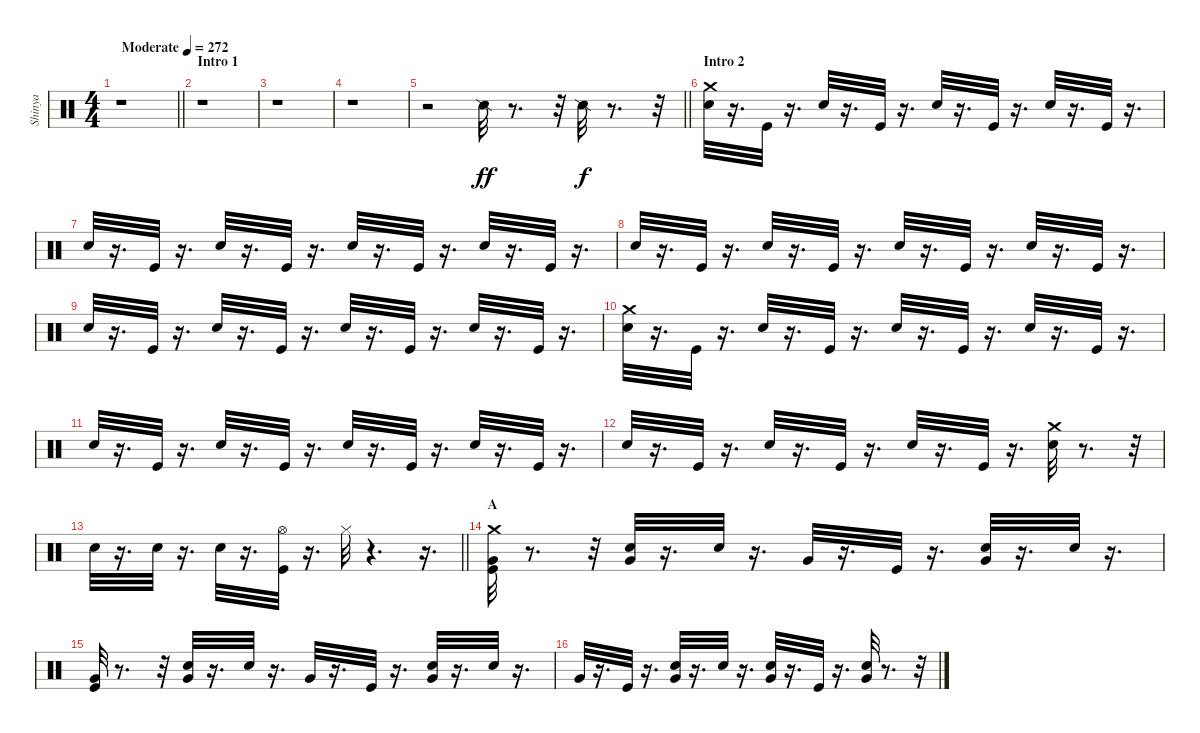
\track ("Shinya" "Shinya") {instrument percussion}
\staff {score}
\articulation defaults
\ts (4 4)
\tempo (272 "Moderate")
\clef neutral
\barLineRight lightlight
\ks c
r.1{dy ff} |
\section ("" "Intro 1")
r.1 |
r.1 |
r.1 |
\barLineRight lightlight
r.2 "Snare (side stick) 2".32 r.8{d} r.32 "Snare (side stick) 2".32{dy f} r.8{d} r.32 |
\section ("" "Intro 2")
("Crash medium (hit)" "Snare (hit) 2").32 r.16{d} "Kick (hit)".32 r.16{d} "Snare (hit) 2".32 r.16{d} "Kick (hit)".32 r.16{d} "Snare (hit) 2".32 r.16{d} "Kick (hit)".32 r.16{d} "Snare (hit) 2".32 r.16{d} "Kick (hit)".32 r.16{d} |
"Snare (hit) 2".32 r.16{d} "Kick (hit)".32 r.16{d} "Snare (hit) 2".32 r.16{d} "Kick (hit)".32 r.16{d} "Snare (hit) 2".32 r.16{d} "Kick (hit)".32 r.16{d} "Snare (hit) 2".32 r.16{d} "Kick (hit)".32 r.16{d} |
"Snare (hit) 2".32 r.16{d} "Kick (hit)".32 r.16{d} "Snare (hit) 2".32 r.16{d} "Kick (hit)".32 r.16{d} "Snare (hit) 2".32 r.16{d} "Kick (hit)".32 r.16{d} "Snare (hit) 2".32 r.16{d} "Kick (hit)".32 r.16{d} |
"Snare (hit) 2".32 r.16{d} "Kick (hit)".32 r.16{d} "Snare (hit) 2".32 r.16{d} "Kick (hit)".32 r.16{d} "Snare (hit) 2".32 r.16{d} "Kick (hit)".32 r.16{d} "Snare (hit) 2".32 r.16{d} "Kick (hit)".32 r.16{d} |
("Crash medium (hit)" "Snare (hit) 2").32 r.16{d} "Kick (hit)".32 r.16{d} "Snare (hit) 2".32 r.16{d} "Kick (hit)".32 r.16{d} "Snare (hit) 2".32 r.16{d} "Kick (hit)".32 r.16{d} "Snare (hit) 2".32 r.16{d} "Kick (hit)".32 r.16{d} |
"Snare (hit) 2".32 r.16{d} "Kick (hit)".32 r.16{d} "Snare (hit) 2".32 r.16{d} "Kick (hit)".32 r.16{d} "Snare (hit) 2".32 r.16{d} "Kick (hit)".32 r.16{d} "Snare (hit) 2".32 r.16{d} "Kick (hit)".32 r.16{d} |
"Snare (hit) 2".32 r.16{d} "Kick (hit)".32 r.16{d} "Snare (hit) 2".32 r.16{d} "Kick (hit)".32 r.16{d} "Snare (hit) 2".32 r.16{d} "Kick (hit)".32 r.16{d} ("Crash medium (hit)" "Snare (hit) 2").32 r.8{d} r.32 |
\barLineRight lightlight "Snare (hit) 2".32
r.16{d} "Snare (hit) 2".32 r.16{d} "Snare (hit) 2".32 r.16{d} ("Hi-Hat (open)" "Kick (hit)").32 r.16{d} "Hi-Hat (closed)".32 r.4{d} r.16{d} |
\section ("" "A")
("Very Low Tom (hit)" "Kick (hit)" "Crash medium (hit)").32 r.8{d} r.32 ("Snare (hit) 2" "Very Low Tom (hit)").32 r.16{d} "Snare (hit) 2".32 r.16{d} "Very Low Tom (hit)".32 r.16{d} "Kick (hit)".32 r.16{d} ("Very Low Tom (hit)" "Snare (hit) 2").32 r.16{d} "Snare (hit) 2".32 r.16{d} |
("Very Low Tom (hit)" "Kick (hit)").32 r.8{d} r.32 ("Snare (hit) 2" "Very Low Tom (hit)").32 r.16{d} "Snare (hit) 2".32 r.16{d} "Very Low Tom (hit)".32 r.16{d} "Kick (hit)".32 r.16{d} ("Very Low Tom (hit)" "Snare (hit) 2").32 r.16{d} "Snare (hit) 2".32 r.16{d} |
"Very Low Tom (hit)".32 r.16{d} "Kick (hit)".32 r.16{d} ("Very Low Tom (hit)" "Snare (hit) 2").32 r.16{d} "Snare (hit) 2".32 r.16{d} ("Snare (hit) 2" "Very Low Tom (hit)").32 r.16{d} "Kick (hit)".32 r.16{d} ("Very Low Tom (hit)" "Snare (hit) 2").32 r.8{d} r.32
